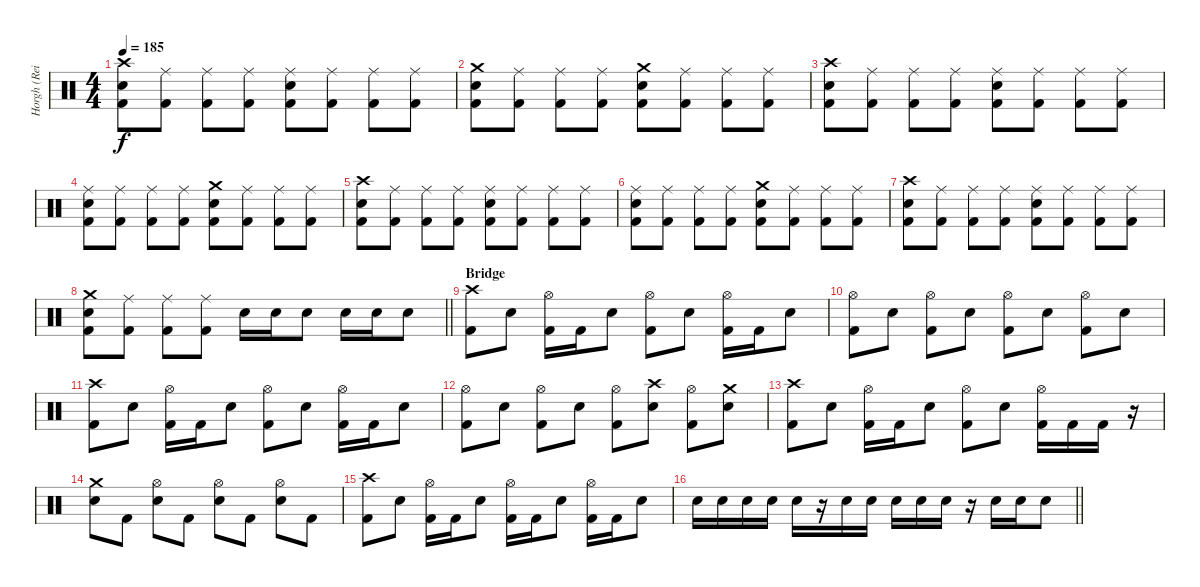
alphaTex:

\track ("Horgh (Reidar Horghagen)" "Horgh (Rei") {instrument percussion}
\staff {score}
\articulation defaults
\ts (4 4)
\tempo 185
\clef neutral
\ks c
("Crash high (hit)" "Snare (hit) 2" "Kick (hit) 2").8{dy f} ("Ride (middle)" "Kick (hit) 2").8 ("Ride (middle)" "Kick (hit) 2").8 ("Ride (middle)" "Kick (hit) 2").8 ("Ride (middle)" "Snare (hit) 2" "Kick (hit) 2").8 ("Ride (middle)" "Kick (hit) 2").8 ("Ride (middle)" "Kick (hit) 2").8 ("Ride (middle)" "Kick (hit) 2").8 |
("Crash medium (hit)" "Snare (hit) 2" "Kick (hit) 2").8 ("Ride (middle)" "Kick (hit) 2").8 ("Ride (middle)" "Kick (hit) 2").8 ("Ride (middle)" "Kick (hit) 2").8 ("Crash medium (hit)" "Snare (hit) 2" "Kick (hit) 2").8 ("Ride (middle)" "Kick (hit) 2").8 ("Ride (middle)" "Kick (hit) 2").8 ("Ride (middle)" "Kick (hit) 2").8 |
("Crash high (hit)" "Snare (hit) 2" "Kick (hit) 2").8 ("Ride (middle)" "Kick (hit) 2").8 ("Ride (middle)" "Kick (hit) 2").8 ("Ride (middle)" "Kick (hit) 2").8 ("Ride (middle)" "Snare (hit) 2" "Kick (hit) 2").8 ("Ride (middle)" "Kick (hit) 2").8 ("Ride (middle)" "Kick (hit) 2").8 ("Ride (middle)" "Kick (hit) 2").8 |
("Ride (middle)" "Snare (hit) 2" "Kick (hit) 2").8 ("Ride (middle)" "Kick (hit) 2").8 ("Ride (middle)" "Kick (hit) 2").8 ("Ride (middle)" "Kick (hit) 2").8 ("Crash medium (hit)" "Snare (hit) 2" "Kick (hit) 2").8 ("Ride (middle)" "Kick (hit) 2").8 ("Ride (middle)" "Kick (hit) 2").8 ("Ride (middle)" "Kick (hit) 2").8 |
("Crash high (hit)" "Snare (hit) 2" "Kick (hit) 2").8 ("Ride (middle)" "Kick (hit) 2").8 ("Ride (middle)" "Kick (hit) 2").8 ("Ride (middle)" "Kick (hit) 2").8 ("Ride (middle)" "Snare (hit) 2" "Kick (hit) 2").8 ("Ride (middle)" "Kick (hit) 2").8 ("Ride (middle)" "Kick (hit) 2").8 ("Ride (middle)" "Kick (hit) 2").8 |
("Ride (middle)" "Snare (hit) 2" "Kick (hit) 2").8 ("Ride (middle)" "Kick (hit) 2").8 ("Ride (middle)" "Kick (hit) 2").8 ("Ride (middle)" "Kick (hit) 2").8 ("Crash medium (hit)" "Snare (hit) 2" "Kick (hit) 2").8 ("Ride (middle)" "Kick (hit) 2").8 ("Ride (middle)" "Kick (hit) 2").8 ("Ride (middle)" "Kick (hit) 2").8 |
("Crash high (hit)" "Snare (hit) 2" "Kick (hit) 2").8 ("Ride (middle)" "Kick (hit) 2").8 ("Ride (middle)" "Kick (hit) 2").8 ("Ride (middle)" "Kick (hit) 2").8 ("Ride (middle)" "Snare (hit) 2" "Kick (hit) 2").8 ("Ride (middle)" "Kick (hit) 2").8 ("Ride (middle)" "Kick (hit) 2").8 ("Ride (middle)" "Kick (hit) 2").8 |
\barLineRight lightlight
("Crash medium (hit)" "Snare (hit) 2" "Kick (hit) 2").8 ("Ride (middle)" "Kick (hit) 2").8 ("Ride (middle)" "Kick (hit) 2").8 ("Ride (middle)" "Kick (hit) 2").8 "Snare (hit) 2".16 "Snare (hit) 2".16 "Snare (hit) 2".8 "Snare (hit) 2".16 "Snare (hit) 2".16 "Snare (hit) 2".8 |
\section ("" "Bridge")
("Crash high (hit)" "Kick (hit) 2").8 "Snare (hit) 2".8 ("Hi-Hat (open)" "Kick (hit) 2").16 "Kick (hit) 2".16 "Snare (hit) 2".8 ("Hi-Hat (open)" "Kick (hit) 2").8 "Snare (hit) 2".8 ("Hi-Hat (open)" "Kick (hit) 2").16 "Kick (hit) 2".16 "Snare (hit) 2".8 |
("Hi-Hat (open)" "Kick (hit) 2").8 "Snare (hit) 2".8 ("Hi-Hat (open)" "Kick (hit) 2").8 "Snare (hit) 2".8 ("Hi-Hat (open)" "Kick (hit) 2").8 "Snare (hit) 2".8 ("Hi-Hat (open)" "Kick (hit) 2").8 "Snare (hit) 2".8 |
("Crash high (hit)" "Kick (hit) 2").8 "Snare (hit) 2".8 ("Hi-Hat (open)" "Kick (hit) 2").16 "Kick (hit) 2".16 "Snare (hit) 2".8 ("Hi-Hat (open)" "Kick (hit) 2").8 "Snare (hit) 2".8 ("Hi-Hat (open)" "Kick (hit) 2").16 "Kick (hit) 2".16 "Snare (hit) 2".8 |
("Hi-Hat (open)" "Kick (hit) 2").8 "Snare (hit) 2".8 ("Hi-Hat (open)" "Kick (hit) 2").8 "Snare (hit) 2".8 ("Hi-Hat (open)" "Kick (hit) 2").8 ("Crash high (hit)" "Snare (hit) 2").8 ("Hi-Hat (open)" "Kick (hit) 2").8 ("Crash medium (hit)" "Snare (hit) 2").8 |
("Crash high (hit)" "Kick (hit) 2").8 "Snare (hit) 2".8 ("Hi-Hat (open)" "Kick (hit) 2").16 "Kick (hit) 2".16 "Snare (hit) 2".8 ("Hi-Hat (open)" "Kick (hit) 2").8 "Snare (hit) 2".8 ("Hi-Hat (open)" "Kick (hit) 2").16 "Kick (hit) 2".16 "Kick (hit) 2".16 r.16 |
("Crash medium (hit)" "Snare (hit) 2").8 "Kick (hit) 2".8 ("Hi-Hat (open)" "Snare (hit) 2").8 "Kick (hit) 2".8 ("Hi-Hat (open)" "Snare (hit) 2").8 "Kick (hit) 2".8 ("Hi-Hat (open)" "Snare (hit) 2").8 "Kick (hit) 2".8 |
("Crash high (hit)" "Kick (hit) 2").8 "Snare (hit) 2".8 ("Hi-Hat (open)" "Kick (hit) 2").16 "Kick (hit) 2".16 "Snare (hit) 2".8 ("Hi-Hat (open)" "Kick (hit) 2").16 "Kick (hit) 2".16 "Snare (hit) 2".8 ("Hi-Hat (open)" "Kick (hit) 2").16 "Kick (hit) 2".16 "Snare (hit) 2".8 |
\barLineRight lightlight "Snare (hit) 2".16 "Snare (hit) 2".16 "Snare (hit) 2".16 "Snare (hit) 2".16 "Snare (hit) 2".16
r.16 "Snare (hit) 2".16 "Snare (hit) 2".16 "Snare (hit) 2".16 "Snare (hit) 2".16 "Snare (hit) 2".16 r.16 "Snare (hit) 2".16 "Snare (hit) 2".16 "Snare (hit) 2".8
